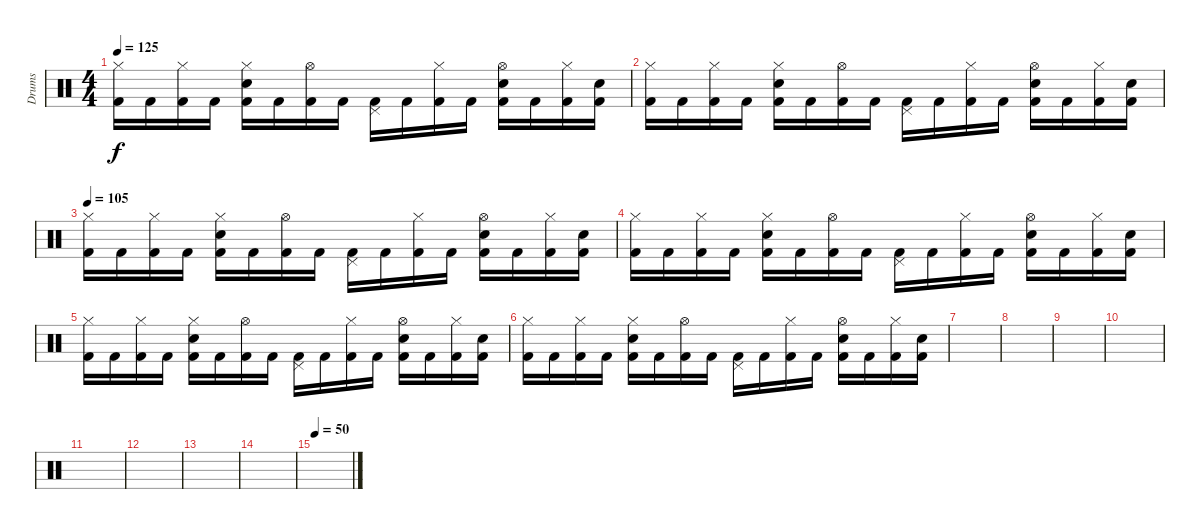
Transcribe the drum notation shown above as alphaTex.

\track ("Drums" "Drums") {instrument percussion}
\staff {score}
\articulation defaults
\ts (4 4)
\tempo 125
\clef neutral
\ks c
("Hi-Hat (closed)" "Kick (hit) 2").16{dy f} "Kick (hit) 2".16 ("Hi-Hat (closed)" "Kick (hit) 2").16 "Kick (hit) 2".16 ("Hi-Hat (closed)" "Kick (hit) 2" "Snare (hit) 2").16 "Kick (hit) 2".16 ("Hi-Hat (open)" "Kick (hit) 2").16 "Kick (hit) 2".16 ("Pedal Hi-Hat (hit)" "Kick (hit) 2").16 "Kick (hit) 2".16 ("Hi-Hat (closed)" "Kick (hit) 2").16 "Kick (hit) 2".16 ("Hi-Hat (open)" "Kick (hit) 2" "Snare (hit) 2").16 "Kick (hit) 2".16 ("Hi-Hat (closed)" "Kick (hit) 2").16 ("Kick (hit) 2" "Snare (hit) 2").16 |
("Hi-Hat (closed)" "Kick (hit) 2").16 "Kick (hit) 2".16 ("Hi-Hat (closed)" "Kick (hit) 2").16 "Kick (hit) 2".16 ("Hi-Hat (closed)" "Kick (hit) 2" "Snare (hit) 2").16 "Kick (hit) 2".16 ("Hi-Hat (open)" "Kick (hit) 2").16 "Kick (hit) 2".16 ("Pedal Hi-Hat (hit)" "Kick (hit) 2").16 "Kick (hit) 2".16 ("Hi-Hat (closed)" "Kick (hit) 2").16 "Kick (hit) 2".16 ("Hi-Hat (open)" "Kick (hit) 2" "Snare (hit) 2").16 "Kick (hit) 2".16 ("Hi-Hat (closed)" "Kick (hit) 2").16 ("Kick (hit) 2" "Snare (hit) 2").16 |
\tempo 105
("Hi-Hat (closed)" "Kick (hit) 2").16{volume 5} "Kick (hit) 2".16 ("Hi-Hat (closed)" "Kick (hit) 2").16 "Kick (hit) 2".16 ("Hi-Hat (closed)" "Kick (hit) 2" "Snare (hit) 2").16 "Kick (hit) 2".16 ("Hi-Hat (open)" "Kick (hit) 2").16 "Kick (hit) 2".16 ("Pedal Hi-Hat (hit)" "Kick (hit) 2").16 "Kick (hit) 2".16 ("Hi-Hat (closed)" "Kick (hit) 2").16 "Kick (hit) 2".16 ("Hi-Hat (open)" "Kick (hit) 2" "Snare (hit) 2").16 "Kick (hit) 2".16 ("Hi-Hat (closed)" "Kick (hit) 2").16 ("Kick (hit) 2" "Snare (hit) 2").16 |
("Hi-Hat (closed)" "Kick (hit) 2").16 "Kick (hit) 2".16 ("Hi-Hat (closed)" "Kick (hit) 2").16 "Kick (hit) 2".16 ("Hi-Hat (closed)" "Kick (hit) 2" "Snare (hit) 2").16 "Kick (hit) 2".16 ("Hi-Hat (open)" "Kick (hit) 2").16 "Kick (hit) 2".16 ("Pedal Hi-Hat (hit)" "Kick (hit) 2").16 "Kick (hit) 2".16 ("Hi-Hat (closed)" "Kick (hit) 2").16 "Kick (hit) 2".16 ("Hi-Hat (open)" "Kick (hit) 2" "Snare (hit) 2").16 "Kick (hit) 2".16 ("Hi-Hat (closed)" "Kick (hit) 2").16 ("Kick (hit) 2" "Snare (hit) 2").16 |
("Hi-Hat (closed)" "Kick (hit) 2").16 "Kick (hit) 2".16 ("Hi-Hat (closed)" "Kick (hit) 2").16 "Kick (hit) 2".16 ("Hi-Hat (closed)" "Kick (hit) 2" "Snare (hit) 2").16 "Kick (hit) 2".16 ("Hi-Hat (open)" "Kick (hit) 2").16 "Kick (hit) 2".16 ("Pedal Hi-Hat (hit)" "Kick (hit) 2").16 "Kick (hit) 2".16 ("Hi-Hat (closed)" "Kick (hit) 2").16 "Kick (hit) 2".16 ("Hi-Hat (open)" "Kick (hit) 2" "Snare (hit) 2").16 "Kick (hit) 2".16 ("Hi-Hat (closed)" "Kick (hit) 2").16 ("Kick (hit) 2" "Snare (hit) 2").16 |
("Hi-Hat (closed)" "Kick (hit) 2").16 "Kick (hit) 2".16 ("Hi-Hat (closed)" "Kick (hit) 2").16 "Kick (hit) 2".16 ("Hi-Hat (closed)" "Kick (hit) 2" "Snare (hit) 2").16 "Kick (hit) 2".16 ("Hi-Hat (open)" "Kick (hit) 2").16 "Kick (hit) 2".16 ("Pedal Hi-Hat (hit)" "Kick (hit) 2").16 "Kick (hit) 2".16 ("Hi-Hat (closed)" "Kick (hit) 2").16 "Kick (hit) 2".16 ("Hi-Hat (open)" "Kick (hit) 2" "Snare (hit) 2").16 "Kick (hit) 2".16 ("Hi-Hat (closed)" "Kick (hit) 2").16 ("Kick (hit) 2" "Snare (hit) 2").16 |
|
|
|
|
|
|
|
|
\tempo 50
